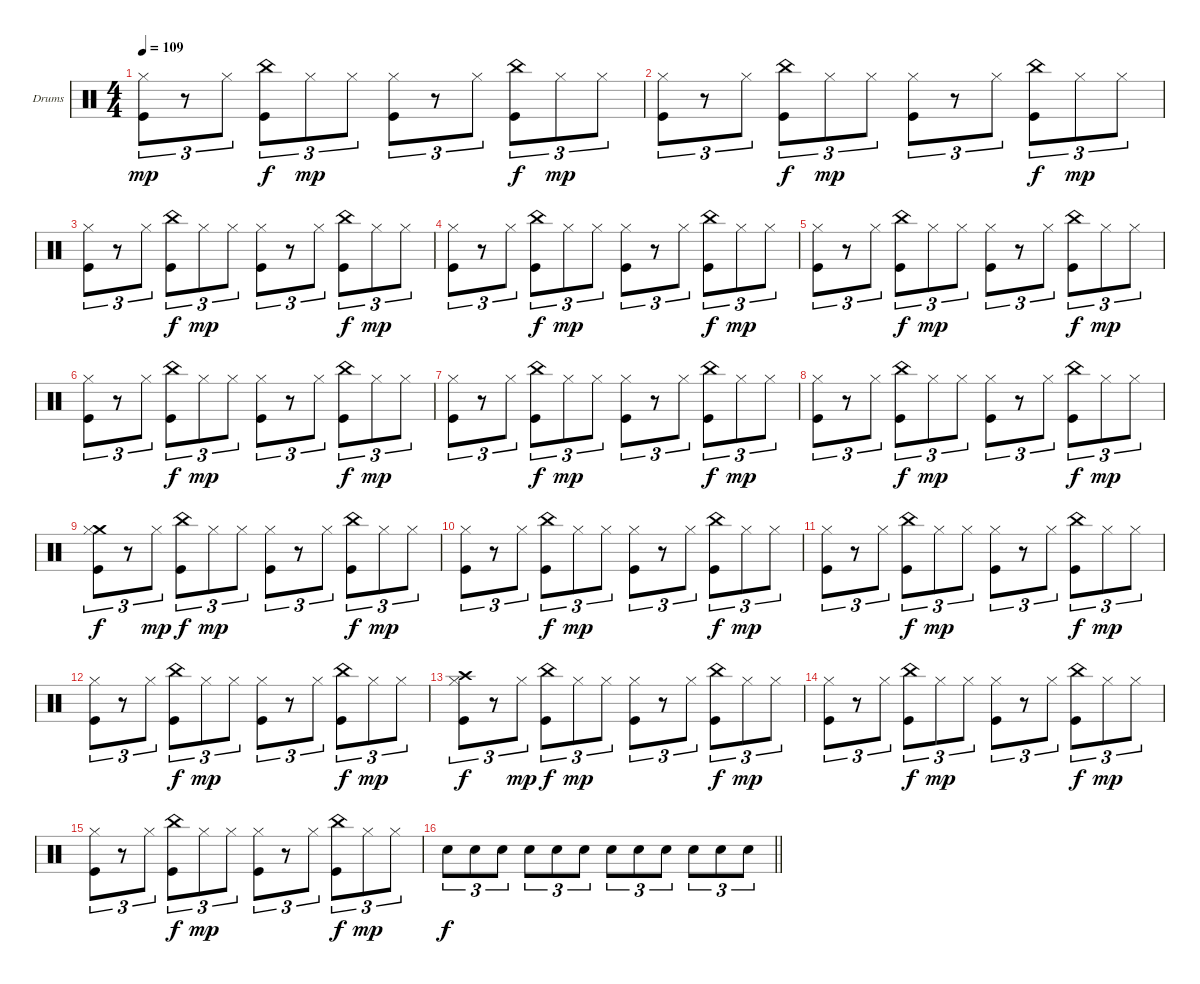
\bracketExtendMode groupsimilarinstruments
\firstSystemTrackNameOrientation horizontal
\otherSystemsTrackNameOrientation horizontal
\track ("Drumkit (Christoph)" "Drums") {instrument percussion}
\staff {score}
\articulation defaults
\ts (4 4)
\tempo 109
\clef neutral
\ks c
("Hi-Hat (closed)" "Kick (hit)").8{tu (3 2) dy mp} r.8{tu (3 2)} "Hi-Hat (closed)".8{tu (3 2)} ("China (hit)" "Kick (hit)").8{tu (3 2) dy f} "Hi-Hat (closed)".8{tu (3 2) dy mp} "Hi-Hat (closed)".8{tu (3 2)} ("Hi-Hat (closed)" "Kick (hit)").8{tu (3 2)} r.8{tu (3 2)} "Hi-Hat (closed)".8{tu (3 2)} ("China (hit)" "Kick (hit)").8{tu (3 2) dy f} "Hi-Hat (closed)".8{tu (3 2) dy mp} "Hi-Hat (closed)".8{tu (3 2)} |
("Hi-Hat (closed)" "Kick (hit)").8{tu (3 2)} r.8{tu (3 2)} "Hi-Hat (closed)".8{tu (3 2)} ("China (hit)" "Kick (hit)").8{tu (3 2) dy f} "Hi-Hat (closed)".8{tu (3 2) dy mp} "Hi-Hat (closed)".8{tu (3 2)} ("Hi-Hat (closed)" "Kick (hit)").8{tu (3 2)} r.8{tu (3 2)} "Hi-Hat (closed)".8{tu (3 2)} ("China (hit)" "Kick (hit)").8{tu (3 2) dy f} "Hi-Hat (closed)".8{tu (3 2) dy mp} "Hi-Hat (closed)".8{tu (3 2)} |
("Hi-Hat (closed)" "Kick (hit)").8{tu (3 2)} r.8{tu (3 2)} "Hi-Hat (closed)".8{tu (3 2)} ("China (hit)" "Kick (hit)").8{tu (3 2) dy f} "Hi-Hat (closed)".8{tu (3 2) dy mp} "Hi-Hat (closed)".8{tu (3 2)} ("Hi-Hat (closed)" "Kick (hit)").8{tu (3 2)} r.8{tu (3 2)} "Hi-Hat (closed)".8{tu (3 2)} ("China (hit)" "Kick (hit)").8{tu (3 2) dy f} "Hi-Hat (closed)".8{tu (3 2) dy mp} "Hi-Hat (closed)".8{tu (3 2)} |
("Hi-Hat (closed)" "Kick (hit)").8{tu (3 2)} r.8{tu (3 2)} "Hi-Hat (closed)".8{tu (3 2)} ("China (hit)" "Kick (hit)").8{tu (3 2) dy f} "Hi-Hat (closed)".8{tu (3 2) dy mp} "Hi-Hat (closed)".8{tu (3 2)} ("Hi-Hat (closed)" "Kick (hit)").8{tu (3 2)} r.8{tu (3 2)} "Hi-Hat (closed)".8{tu (3 2)} ("China (hit)" "Kick (hit)").8{tu (3 2) dy f} "Hi-Hat (closed)".8{tu (3 2) dy mp} "Hi-Hat (closed)".8{tu (3 2)} |
("Hi-Hat (closed)" "Kick (hit)").8{tu (3 2)} r.8{tu (3 2)} "Hi-Hat (closed)".8{tu (3 2)} ("China (hit)" "Kick (hit)").8{tu (3 2) dy f} "Hi-Hat (closed)".8{tu (3 2) dy mp} "Hi-Hat (closed)".8{tu (3 2)} ("Hi-Hat (closed)" "Kick (hit)").8{tu (3 2)} r.8{tu (3 2)} "Hi-Hat (closed)".8{tu (3 2)} ("China (hit)" "Kick (hit)").8{tu (3 2) dy f} "Hi-Hat (closed)".8{tu (3 2) dy mp} "Hi-Hat (closed)".8{tu (3 2)} |
("Hi-Hat (closed)" "Kick (hit)").8{tu (3 2)} r.8{tu (3 2)} "Hi-Hat (closed)".8{tu (3 2)} ("China (hit)" "Kick (hit)").8{tu (3 2) dy f} "Hi-Hat (closed)".8{tu (3 2) dy mp} "Hi-Hat (closed)".8{tu (3 2)} ("Hi-Hat (closed)" "Kick (hit)").8{tu (3 2)} r.8{tu (3 2)} "Hi-Hat (closed)".8{tu (3 2)} ("China (hit)" "Kick (hit)").8{tu (3 2) dy f} "Hi-Hat (closed)".8{tu (3 2) dy mp} "Hi-Hat (closed)".8{tu (3 2)} |
("Hi-Hat (closed)" "Kick (hit)").8{tu (3 2)} r.8{tu (3 2)} "Hi-Hat (closed)".8{tu (3 2)} ("China (hit)" "Kick (hit)").8{tu (3 2) dy f} "Hi-Hat (closed)".8{tu (3 2) dy mp} "Hi-Hat (closed)".8{tu (3 2)} ("Hi-Hat (closed)" "Kick (hit)").8{tu (3 2)} r.8{tu (3 2)} "Hi-Hat (closed)".8{tu (3 2)} ("China (hit)" "Kick (hit)").8{tu (3 2) dy f} "Hi-Hat (closed)".8{tu (3 2) dy mp} "Hi-Hat (closed)".8{tu (3 2)} |
("Hi-Hat (closed)" "Kick (hit)").8{tu (3 2)} r.8{tu (3 2)} "Hi-Hat (closed)".8{tu (3 2)} ("China (hit)" "Kick (hit)").8{tu (3 2) dy f} "Hi-Hat (closed)".8{tu (3 2) dy mp} "Hi-Hat (closed)".8{tu (3 2)} ("Hi-Hat (closed)" "Kick (hit)").8{tu (3 2)} r.8{tu (3 2)} "Hi-Hat (closed)".8{tu (3 2)} ("China (hit)" "Kick (hit)").8{tu (3 2) dy f} "Hi-Hat (closed)".8{tu (3 2) dy mp} "Hi-Hat (closed)".8{tu (3 2)} |
("Crash medium (hit)" "Hi-Hat (closed)" "Kick (hit)").8{tu (3 2) dy f} r.8{tu (3 2)} "Hi-Hat (closed)".8{tu (3 2) dy mp} ("China (hit)" "Kick (hit)").8{tu (3 2) dy f} "Hi-Hat (closed)".8{tu (3 2) dy mp} "Hi-Hat (closed)".8{tu (3 2)} ("Hi-Hat (closed)" "Kick (hit)").8{tu (3 2)} r.8{tu (3 2)} "Hi-Hat (closed)".8{tu (3 2)} ("China (hit)" "Kick (hit)").8{tu (3 2) dy f} "Hi-Hat (closed)".8{tu (3 2) dy mp} "Hi-Hat (closed)".8{tu (3 2)} |
("Hi-Hat (closed)" "Kick (hit)").8{tu (3 2)} r.8{tu (3 2)} "Hi-Hat (closed)".8{tu (3 2)} ("China (hit)" "Kick (hit)").8{tu (3 2) dy f} "Hi-Hat (closed)".8{tu (3 2) dy mp} "Hi-Hat (closed)".8{tu (3 2)} ("Hi-Hat (closed)" "Kick (hit)").8{tu (3 2)} r.8{tu (3 2)} "Hi-Hat (closed)".8{tu (3 2)} ("China (hit)" "Kick (hit)").8{tu (3 2) dy f} "Hi-Hat (closed)".8{tu (3 2) dy mp} "Hi-Hat (closed)".8{tu (3 2)} |
("Hi-Hat (closed)" "Kick (hit)").8{tu (3 2)} r.8{tu (3 2)} "Hi-Hat (closed)".8{tu (3 2)} ("China (hit)" "Kick (hit)").8{tu (3 2) dy f} "Hi-Hat (closed)".8{tu (3 2) dy mp} "Hi-Hat (closed)".8{tu (3 2)} ("Hi-Hat (closed)" "Kick (hit)").8{tu (3 2)} r.8{tu (3 2)} "Hi-Hat (closed)".8{tu (3 2)} ("China (hit)" "Kick (hit)").8{tu (3 2) dy f} "Hi-Hat (closed)".8{tu (3 2) dy mp} "Hi-Hat (closed)".8{tu (3 2)} |
("Hi-Hat (closed)" "Kick (hit)").8{tu (3 2)} r.8{tu (3 2)} "Hi-Hat (closed)".8{tu (3 2)} ("China (hit)" "Kick (hit)").8{tu (3 2) dy f} "Hi-Hat (closed)".8{tu (3 2) dy mp} "Hi-Hat (closed)".8{tu (3 2)} ("Hi-Hat (closed)" "Kick (hit)").8{tu (3 2)} r.8{tu (3 2)} "Hi-Hat (closed)".8{tu (3 2)} ("China (hit)" "Kick (hit)").8{tu (3 2) dy f} "Hi-Hat (closed)".8{tu (3 2) dy mp} "Hi-Hat (closed)".8{tu (3 2)} |
("Crash high (hit)" "Hi-Hat (closed)" "Kick (hit)").8{tu (3 2) dy f} r.8{tu (3 2)} "Hi-Hat (closed)".8{tu (3 2) dy mp} ("China (hit)" "Kick (hit)").8{tu (3 2) dy f} "Hi-Hat (closed)".8{tu (3 2) dy mp} "Hi-Hat (closed)".8{tu (3 2)} ("Hi-Hat (closed)" "Kick (hit)").8{tu (3 2)} r.8{tu (3 2)} "Hi-Hat (closed)".8{tu (3 2)} ("China (hit)" "Kick (hit)").8{tu (3 2) dy f} "Hi-Hat (closed)".8{tu (3 2) dy mp} "Hi-Hat (closed)".8{tu (3 2)} |
("Hi-Hat (closed)" "Kick (hit)").8{tu (3 2)} r.8{tu (3 2)} "Hi-Hat (closed)".8{tu (3 2)} ("China (hit)" "Kick (hit)").8{tu (3 2) dy f} "Hi-Hat (closed)".8{tu (3 2) dy mp} "Hi-Hat (closed)".8{tu (3 2)} ("Hi-Hat (closed)" "Kick (hit)").8{tu (3 2)} r.8{tu (3 2)} "Hi-Hat (closed)".8{tu (3 2)} ("China (hit)" "Kick (hit)").8{tu (3 2) dy f} "Hi-Hat (closed)".8{tu (3 2) dy mp} "Hi-Hat (closed)".8{tu (3 2)} |
("Hi-Hat (closed)" "Kick (hit)").8{tu (3 2)} r.8{tu (3 2)} "Hi-Hat (closed)".8{tu (3 2)} ("China (hit)" "Kick (hit)").8{tu (3 2) dy f} "Hi-Hat (closed)".8{tu (3 2) dy mp} "Hi-Hat (closed)".8{tu (3 2)} ("Hi-Hat (closed)" "Kick (hit)").8{tu (3 2)} r.8{tu (3 2)} "Hi-Hat (closed)".8{tu (3 2)} ("China (hit)" "Kick (hit)").8{tu (3 2) dy f} "Hi-Hat (closed)".8{tu (3 2) dy mp} "Hi-Hat (closed)".8{tu (3 2)} |
\barLineRight lightlight "Snare (hit) 2".8{tu (3 2) dy f} "Snare (hit) 2".8{tu (3 2)} "Snare (hit) 2".8{tu (3 2)} "Snare (hit) 2".8{tu (3 2)} "Snare (hit) 2".8{tu (3 2)} "Snare (hit) 2".8{tu (3 2)} "Snare (hit) 2".8{tu (3 2)} "Snare (hit) 2".8{tu (3 2)} "Snare (hit) 2".8{tu (3 2)} "Snare (hit) 2".8{tu (3 2)} "Snare (hit) 2".8{tu (3 2)} "Snare (hit) 2".8{tu (3 2)}
